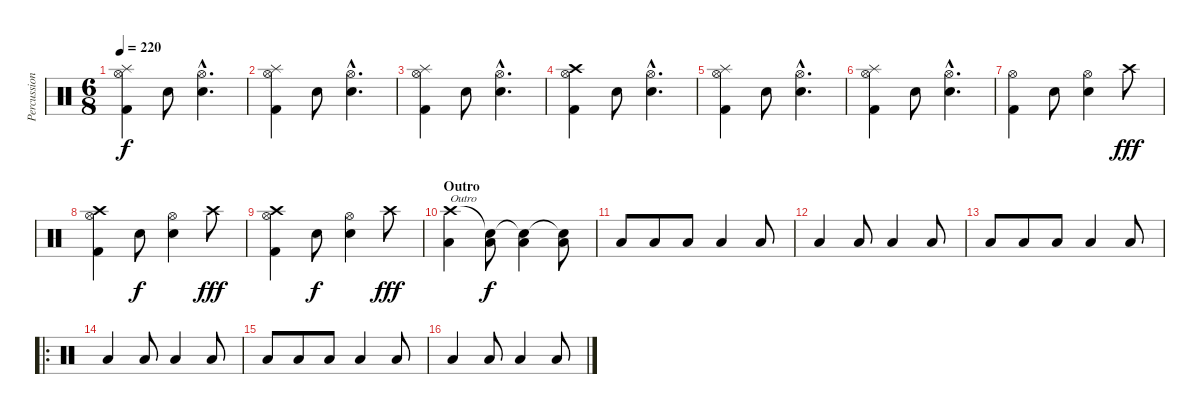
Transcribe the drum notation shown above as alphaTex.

\track ("Percussion" "Percussion") {instrument percussion}
\staff {score}
\articulation defaults
\ts (6 8)
\tempo 220
\clef neutral
\ks c
("Hi-Hat (open)" "Splash (hit)" "Kick (hit) 2").4{dy f} "Snare (hit) 2".8 ("Hi-Hat (open)"{hac} "Electric Snare (hit)"{hac}).4{d} |
("Hi-Hat (open)" "Splash (hit)" "Kick (hit) 2").4 "Snare (hit) 2".8 ("Hi-Hat (open)"{hac} "Electric Snare (hit)"{hac}).4{d} |
("Hi-Hat (open)" "Splash (hit)" "Kick (hit) 2").4 "Snare (hit) 2".8 ("Hi-Hat (open)"{hac} "Electric Snare (hit)"{hac}).4{d} |
("Hi-Hat (open)" "Crash high (hit)" "Kick (hit) 2").4 "Snare (hit) 2".8 ("Hi-Hat (open)"{hac} "Electric Snare (hit)"{hac}).4{d} |
("Hi-Hat (open)" "Splash (hit)" "Kick (hit) 2").4 "Snare (hit) 2".8 ("Hi-Hat (open)"{hac} "Electric Snare (hit)"{hac}).4{d} |
("Hi-Hat (open)" "Splash (hit)" "Kick (hit) 2").4 "Snare (hit) 2".8 ("Hi-Hat (open)"{hac} "Electric Snare (hit)"{hac}).4{d} |
("Hi-Hat (open)" "Kick (hit) 2").4 "Snare (hit) 2".8 ("Hi-Hat (open)" "Electric Snare (hit)").4 "Crash high (hit)".8{dy fff} |
("Hi-Hat (open)" "Crash high (hit)" "Kick (hit) 2").4 "Snare (hit) 2".8{dy f} ("Hi-Hat (open)" "Electric Snare (hit)").4 "Crash high (hit)".8{dy fff} |
("Hi-Hat (open)" "Crash high (hit)" "Kick (hit) 2").4 "Snare (hit) 2".8{dy f} ("Hi-Hat (open)" "Electric Snare (hit)").4 "Crash high (hit)".8{dy fff} |
\section ("" "Outro")
("Crash high (hit)" "Low Floor Tom (hit)").4{txt "Outro" volume 7} ("Snare (hit)"{t} "Low Floor Tom (hit)").8{dy f} ("Snare (hit)"{t} "Low Tom (hit)").4 ("Snare (hit)"{t} "Low Tom (hit)").8 |
"Low Floor Tom (hit)".8 "Low Floor Tom (hit)".8 "Low Floor Tom (hit)".8 "Low Tom (hit)".4 "Low Tom (hit)".8 |
"Low Floor Tom (hit)".4 "Low Floor Tom (hit)".8 "Low Tom (hit)".4 "Low Tom (hit)".8 |
"Low Floor Tom (hit)".8 "Low Floor Tom (hit)".8 "Low Floor Tom (hit)".8 "Low Tom (hit)".4 "Low Tom (hit)".8 |
\ro "Low Floor Tom (hit)".4 "Low Floor Tom (hit)".8 "Low Tom (hit)".4 "Low Tom (hit)".8
|
"Low Floor Tom (hit)".8 "Low Floor Tom (hit)".8 "Low Floor Tom (hit)".8 "Low Tom (hit)".4 "Low Tom (hit)".8 |
"Low Floor Tom (hit)".4 "Low Floor Tom (hit)".8 "Low Tom (hit)".4 "Low Tom (hit)".8
